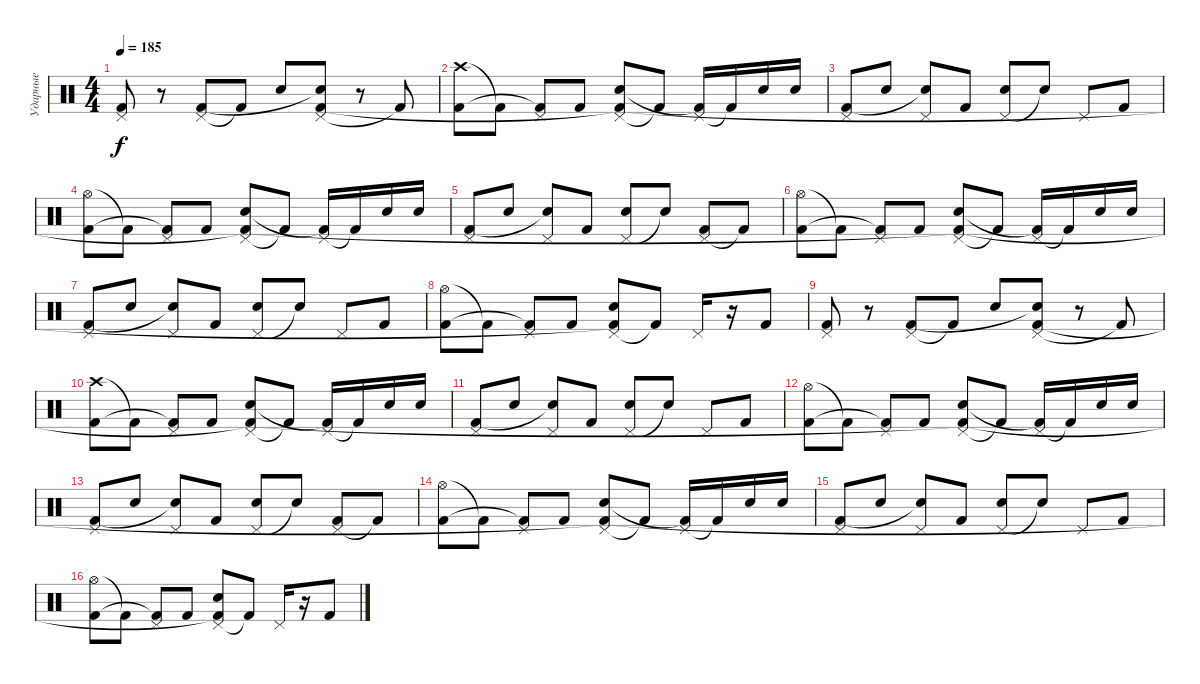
\track ("Ударные" "Ударные") {instrument percussion}
\staff {score}
\articulation defaults
\ts (4 4)
\tempo 185
\clef neutral
\ks c
("Pedal Hi-Hat (hit)" "Kick (hit) 2").8{dy f} r.8 ("Pedal Hi-Hat (hit)" "Kick (hit) 2").8 "Kick (hit) 2"{t}.8 "Electric Snare (hit)".8 ("Pedal Hi-Hat (hit)" "Electric Snare (hit)"{t} "Kick (hit) 2").8 r.8 "Kick (hit) 2"{t}.8 |
("Crash high (hit)" "Kick (hit) 2").8 "Kick (hit) 2"{t}.8 ("Pedal Hi-Hat (hit)" "Kick (hit) 2"{t}).8 "Kick (hit) 2".8 ("Pedal Hi-Hat (hit)" "Electric Snare (hit)" "Kick (hit) 2"{t}).8 "Kick (hit) 2"{t}.8 ("Pedal Hi-Hat (hit)" "Kick (hit) 2"{t}).16 "Kick (hit) 2"{t}.16 "Electric Snare (hit)".16 "Electric Snare (hit)".16 |
("Pedal Hi-Hat (hit)" "Kick (hit) 2").8 "Electric Snare (hit)".8 ("Pedal Hi-Hat (hit)" "Snare (hit)"{t}).8 "Kick (hit) 2".8 ("Pedal Hi-Hat (hit)" "Electric Snare (hit)").8 "Electric Snare (hit)"{t}.8 "Pedal Hi-Hat (hit)".8 "Kick (hit) 2".8 |
("Hi-Hat (open)" "Kick (hit) 2").8 "Kick (hit) 2"{t}.8 ("Pedal Hi-Hat (hit)" "Kick (hit) 2"{t}).8 "Kick (hit) 2".8 ("Pedal Hi-Hat (hit)" "Electric Snare (hit)" "Kick (hit) 2"{t}).8 "Kick (hit) 2"{t}.8 ("Pedal Hi-Hat (hit)" "Kick (hit) 2"{t}).16 "Kick (hit) 2"{t}.16 "Electric Snare (hit)".16 "Electric Snare (hit)".16 |
("Pedal Hi-Hat (hit)" "Kick (hit) 2").8 "Electric Snare (hit)".8 ("Pedal Hi-Hat (hit)" "Snare (hit)"{t}).8 "Kick (hit) 2".8 ("Pedal Hi-Hat (hit)" "Electric Snare (hit)").8 "Electric Snare (hit)"{t}.8 ("Pedal Hi-Hat (hit)" "Kick (hit) 2").8 "Kick (hit) 2"{t}.8 |
("Hi-Hat (open)" "Kick (hit) 2").8 "Kick (hit) 2"{t}.8 ("Pedal Hi-Hat (hit)" "Kick (hit) 2"{t}).8 "Kick (hit) 2".8 ("Pedal Hi-Hat (hit)" "Electric Snare (hit)" "Kick (hit) 2"{t}).8 "Kick (hit) 2"{t}.8 ("Pedal Hi-Hat (hit)" "Kick (hit) 2"{t}).16 "Kick (hit) 2"{t}.16 "Electric Snare (hit)".16 "Electric Snare (hit)".16 |
("Pedal Hi-Hat (hit)" "Kick (hit) 2").8 "Electric Snare (hit)".8 ("Pedal Hi-Hat (hit)" "Snare (hit)"{t}).8 "Kick (hit) 2".8 ("Pedal Hi-Hat (hit)" "Electric Snare (hit)").8 "Electric Snare (hit)"{t}.8 "Pedal Hi-Hat (hit)".8 "Kick (hit) 2".8 |
("Hi-Hat (open)" "Kick (hit) 2").8 "Kick (hit) 2"{t}.8 ("Pedal Hi-Hat (hit)" "Kick (hit) 2"{t}).8 "Kick (hit) 2".8 ("Pedal Hi-Hat (hit)" "Electric Snare (hit)" "Kick (hit) 2"{t}).8 "Kick (hit) 2"{t}.8 "Pedal Hi-Hat (hit)".16 r.16 "Kick (hit) 2".8 |
("Pedal Hi-Hat (hit)" "Kick (hit) 2").8 r.8 ("Pedal Hi-Hat (hit)" "Kick (hit) 2").8 "Kick (hit) 2"{t}.8 "Electric Snare (hit)".8 ("Pedal Hi-Hat (hit)" "Electric Snare (hit)"{t} "Kick (hit) 2").8 r.8 "Kick (hit) 2"{t}.8 |
("Crash high (hit)" "Kick (hit) 2").8 "Kick (hit) 2"{t}.8 ("Pedal Hi-Hat (hit)" "Kick (hit) 2"{t}).8 "Kick (hit) 2".8 ("Pedal Hi-Hat (hit)" "Electric Snare (hit)" "Kick (hit) 2"{t}).8 "Kick (hit) 2"{t}.8 ("Pedal Hi-Hat (hit)" "Kick (hit) 2"{t}).16 "Kick (hit) 2"{t}.16 "Electric Snare (hit)".16 "Electric Snare (hit)".16 |
("Pedal Hi-Hat (hit)" "Kick (hit) 2").8 "Electric Snare (hit)".8 ("Pedal Hi-Hat (hit)" "Snare (hit)"{t}).8 "Kick (hit) 2".8 ("Pedal Hi-Hat (hit)" "Electric Snare (hit)").8 "Electric Snare (hit)"{t}.8 "Pedal Hi-Hat (hit)".8 "Kick (hit) 2".8 |
("Hi-Hat (open)" "Kick (hit) 2").8 "Kick (hit) 2"{t}.8 ("Pedal Hi-Hat (hit)" "Kick (hit) 2"{t}).8 "Kick (hit) 2".8 ("Pedal Hi-Hat (hit)" "Electric Snare (hit)" "Kick (hit) 2"{t}).8 "Kick (hit) 2"{t}.8 ("Pedal Hi-Hat (hit)" "Kick (hit) 2"{t}).16 "Kick (hit) 2"{t}.16 "Electric Snare (hit)".16 "Electric Snare (hit)".16 |
("Pedal Hi-Hat (hit)" "Kick (hit) 2").8 "Electric Snare (hit)".8 ("Pedal Hi-Hat (hit)" "Snare (hit)"{t}).8 "Kick (hit) 2".8 ("Pedal Hi-Hat (hit)" "Electric Snare (hit)").8 "Electric Snare (hit)"{t}.8 ("Pedal Hi-Hat (hit)" "Kick (hit) 2").8 "Kick (hit) 2"{t}.8 |
("Hi-Hat (open)" "Kick (hit) 2").8 "Kick (hit) 2"{t}.8 ("Pedal Hi-Hat (hit)" "Kick (hit) 2"{t}).8 "Kick (hit) 2".8 ("Pedal Hi-Hat (hit)" "Electric Snare (hit)" "Kick (hit) 2"{t}).8 "Kick (hit) 2"{t}.8 ("Pedal Hi-Hat (hit)" "Kick (hit) 2"{t}).16 "Kick (hit) 2"{t}.16 "Electric Snare (hit)".16 "Electric Snare (hit)".16 |
("Pedal Hi-Hat (hit)" "Kick (hit) 2").8 "Electric Snare (hit)".8 ("Pedal Hi-Hat (hit)" "Snare (hit)"{t}).8 "Kick (hit) 2".8 ("Pedal Hi-Hat (hit)" "Electric Snare (hit)").8 "Electric Snare (hit)"{t}.8 "Pedal Hi-Hat (hit)".8 "Kick (hit) 2".8 |
("Hi-Hat (open)" "Kick (hit) 2").8 "Kick (hit) 2"{t}.8 ("Pedal Hi-Hat (hit)" "Kick (hit) 2"{t}).8 "Kick (hit) 2".8 ("Pedal Hi-Hat (hit)" "Electric Snare (hit)" "Kick (hit) 2"{t}).8 "Kick (hit) 2"{t}.8 "Pedal Hi-Hat (hit)".16 r.16 "Kick (hit) 2".8
